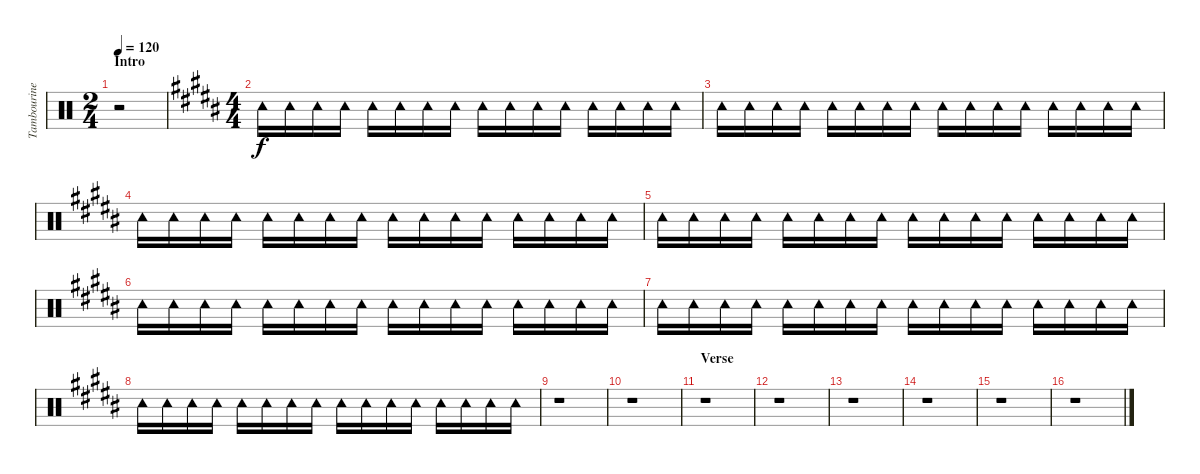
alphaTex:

\track ("Tambourine" "Tambourine") {instrument percussion}
\staff {score}
\articulation defaults
\ts (2 4)
\section ("" "Intro")
\tempo 120
\clef neutral
\ks c
r.2{dy f} |
\ts (4 4)
\ks b "Tambourine (hit)".16 "Tambourine (hit)".16 "Tambourine (hit)".16 "Tambourine (hit)".16 "Tambourine (hit)".16 "Tambourine (hit)".16 "Tambourine (hit)".16 "Tambourine (hit)".16 "Tambourine (hit)".16 "Tambourine (hit)".16 "Tambourine (hit)".16 "Tambourine (hit)".16 "Tambourine (hit)".16 "Tambourine (hit)".16 "Tambourine (hit)".16 "Tambourine (hit)".16
|
"Tambourine (hit)".16 "Tambourine (hit)".16 "Tambourine (hit)".16 "Tambourine (hit)".16 "Tambourine (hit)".16 "Tambourine (hit)".16 "Tambourine (hit)".16 "Tambourine (hit)".16 "Tambourine (hit)".16 "Tambourine (hit)".16 "Tambourine (hit)".16 "Tambourine (hit)".16 "Tambourine (hit)".16 "Tambourine (hit)".16 "Tambourine (hit)".16 "Tambourine (hit)".16 |
"Tambourine (hit)".16 "Tambourine (hit)".16 "Tambourine (hit)".16 "Tambourine (hit)".16 "Tambourine (hit)".16 "Tambourine (hit)".16 "Tambourine (hit)".16 "Tambourine (hit)".16 "Tambourine (hit)".16 "Tambourine (hit)".16 "Tambourine (hit)".16 "Tambourine (hit)".16 "Tambourine (hit)".16 "Tambourine (hit)".16 "Tambourine (hit)".16 "Tambourine (hit)".16 |
"Tambourine (hit)".16 "Tambourine (hit)".16 "Tambourine (hit)".16 "Tambourine (hit)".16 "Tambourine (hit)".16 "Tambourine (hit)".16 "Tambourine (hit)".16 "Tambourine (hit)".16 "Tambourine (hit)".16 "Tambourine (hit)".16 "Tambourine (hit)".16 "Tambourine (hit)".16 "Tambourine (hit)".16 "Tambourine (hit)".16 "Tambourine (hit)".16 "Tambourine (hit)".16 |
"Tambourine (hit)".16 "Tambourine (hit)".16 "Tambourine (hit)".16 "Tambourine (hit)".16 "Tambourine (hit)".16 "Tambourine (hit)".16 "Tambourine (hit)".16 "Tambourine (hit)".16 "Tambourine (hit)".16 "Tambourine (hit)".16 "Tambourine (hit)".16 "Tambourine (hit)".16 "Tambourine (hit)".16 "Tambourine (hit)".16 "Tambourine (hit)".16 "Tambourine (hit)".16 |
"Tambourine (hit)".16 "Tambourine (hit)".16 "Tambourine (hit)".16 "Tambourine (hit)".16 "Tambourine (hit)".16 "Tambourine (hit)".16 "Tambourine (hit)".16 "Tambourine (hit)".16 "Tambourine (hit)".16 "Tambourine (hit)".16 "Tambourine (hit)".16 "Tambourine (hit)".16 "Tambourine (hit)".16 "Tambourine (hit)".16 "Tambourine (hit)".16 "Tambourine (hit)".16 |
"Tambourine (hit)".16 "Tambourine (hit)".16 "Tambourine (hit)".16 "Tambourine (hit)".16 "Tambourine (hit)".16 "Tambourine (hit)".16 "Tambourine (hit)".16 "Tambourine (hit)".16 "Tambourine (hit)".16 "Tambourine (hit)".16 "Tambourine (hit)".16 "Tambourine (hit)".16 "Tambourine (hit)".16 "Tambourine (hit)".16 "Tambourine (hit)".16 "Tambourine (hit)".16 |
r.1 |
r.1 |
\section ("" "Verse")
r.1 |
r.1 |
r.1 |
r.1 |
r.1 |
r.1
